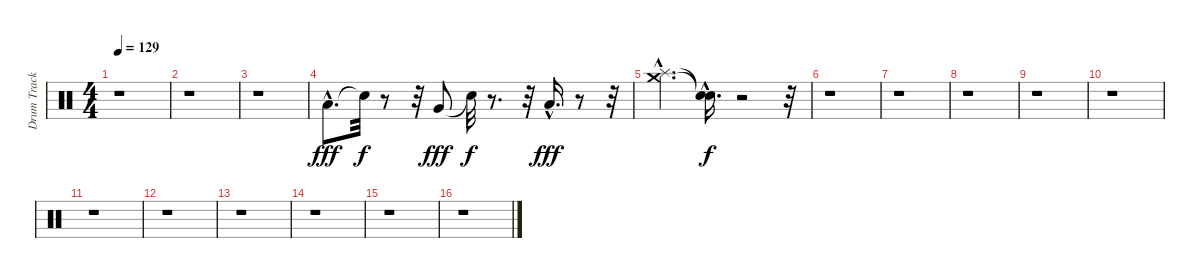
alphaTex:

\track ("Drum Track 2" "Drum Track") {instrument percussion}
\staff {score}
\articulation defaults
\ts (4 4)
\tempo 129
\clef neutral
\ks c
r.1{dy f} |
r.1 |
r.1 |
"Low Tom (hit)"{hac}.8{d dy fff} "Snare (hit)"{t}.32{dy f} r.8 r.32 "Very Low Tom (hit)".8{dy fff} "Snare (hit)"{t}.32{dy f} r.8{d} r.32 "Low Floor Tom (hit)"{hac}.16{d dy fff} r.8 r.32 |
("Splash (hit)"{hac} "Crash medium (hit)"{hac}).4{d} ("Snare (hit)"{hac t} "Snare (hit)"{hac t}).16{d dy f} r.2 r.32 |
r.1 |
r.1 |
r.1 |
r.1 |
r.1 |
r.1 |
r.1 |
r.1 |
r.1 |
r.1 |
r.1
